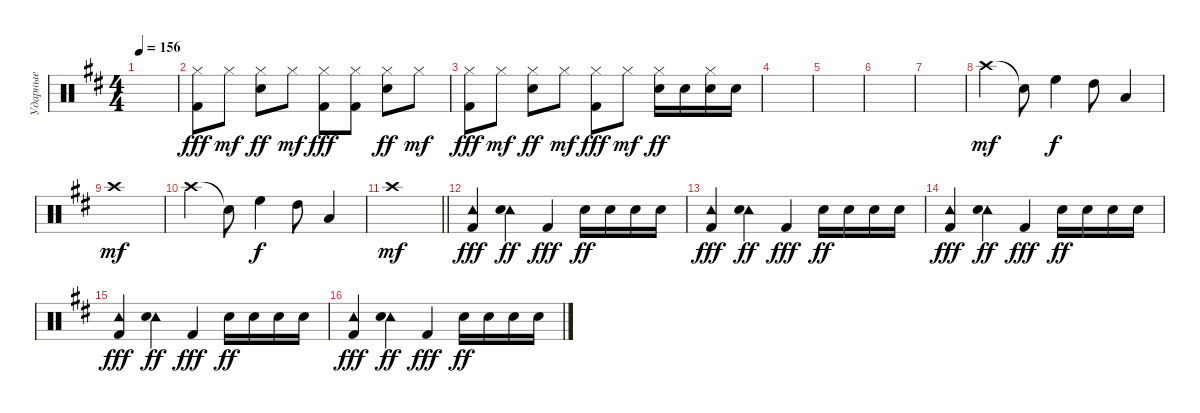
\track ("Ударные" "Ударные") {instrument percussion}
\staff {score}
\articulation defaults
\ts (4 4)
\tempo 156
\clef neutral
\ks bminor
|
("Hi-Hat (closed)" "Kick (hit) 2").8{dy fff} "Hi-Hat (closed)".8{dy mf} ("Hi-Hat (closed)" "Electric Snare (hit)").8{dy ff} "Hi-Hat (closed)".8{dy mf} ("Hi-Hat (closed)" "Kick (hit) 2").8{dy fff} ("Hi-Hat (closed)" "Kick (hit) 2").8 ("Hi-Hat (closed)" "Electric Snare (hit)").8{dy ff} "Hi-Hat (closed)".8{dy mf} |
("Hi-Hat (closed)" "Kick (hit) 2").8{dy fff} "Hi-Hat (closed)".8{dy mf} ("Hi-Hat (closed)" "Electric Snare (hit)").8{dy ff} "Hi-Hat (closed)".8{dy mf} ("Hi-Hat (closed)" "Kick (hit) 2").8{dy fff} "Hi-Hat (closed)".8{dy mf} ("Hi-Hat (closed)" "Electric Snare (hit)").16{dy ff} "Electric Snare (hit)".16 ("Hi-Hat (closed)" "Electric Snare (hit)").16 "Electric Snare (hit)".16 |
|
|
|
|
"Crash high (hit)".4{dy mf} "Snare (hit)"{t}.8 "High Floor Tom (hit)".4{dy f} "High Tom (hit)".8 "Low Tom (hit)".4 |
"Crash high (hit)".1{dy mf} |
"Crash high (hit)".4 "Snare (hit)"{t}.8 "High Floor Tom (hit)".4{dy f} "High Tom (hit)".8 "Low Tom (hit)".4 |
\barLineRight lightlight "Crash high (hit)".1{dy mf}
|
("Tambourine (hit)" "Kick (hit) 2").4{dy fff} ("Tambourine (hit)" "Electric Snare (hit)").4{dy ff} "Kick (hit) 2".4{dy fff} "Electric Snare (hit)".16{dy ff} "Electric Snare (hit)".16 "Electric Snare (hit)".16 "Electric Snare (hit)".16 |
("Tambourine (hit)" "Kick (hit) 2").4{dy fff} ("Tambourine (hit)" "Electric Snare (hit)").4{dy ff} "Kick (hit) 2".4{dy fff} "Electric Snare (hit)".16{dy ff} "Electric Snare (hit)".16 "Electric Snare (hit)".16 "Electric Snare (hit)".16 |
("Tambourine (hit)" "Kick (hit) 2").4{dy fff} ("Tambourine (hit)" "Electric Snare (hit)").4{dy ff} "Kick (hit) 2".4{dy fff} "Electric Snare (hit)".16{dy ff} "Electric Snare (hit)".16 "Electric Snare (hit)".16 "Electric Snare (hit)".16 |
("Tambourine (hit)" "Kick (hit) 2").4{dy fff} ("Tambourine (hit)" "Electric Snare (hit)").4{dy ff} "Kick (hit) 2".4{dy fff} "Electric Snare (hit)".16{dy ff} "Electric Snare (hit)".16 "Electric Snare (hit)".16 "Electric Snare (hit)".16 |
("Tambourine (hit)" "Kick (hit) 2").4{dy fff} ("Tambourine (hit)" "Electric Snare (hit)").4{dy ff} "Kick (hit) 2".4{dy fff} "Electric Snare (hit)".16{dy ff} "Electric Snare (hit)".16 "Electric Snare (hit)".16 "Electric Snare (hit)".16
